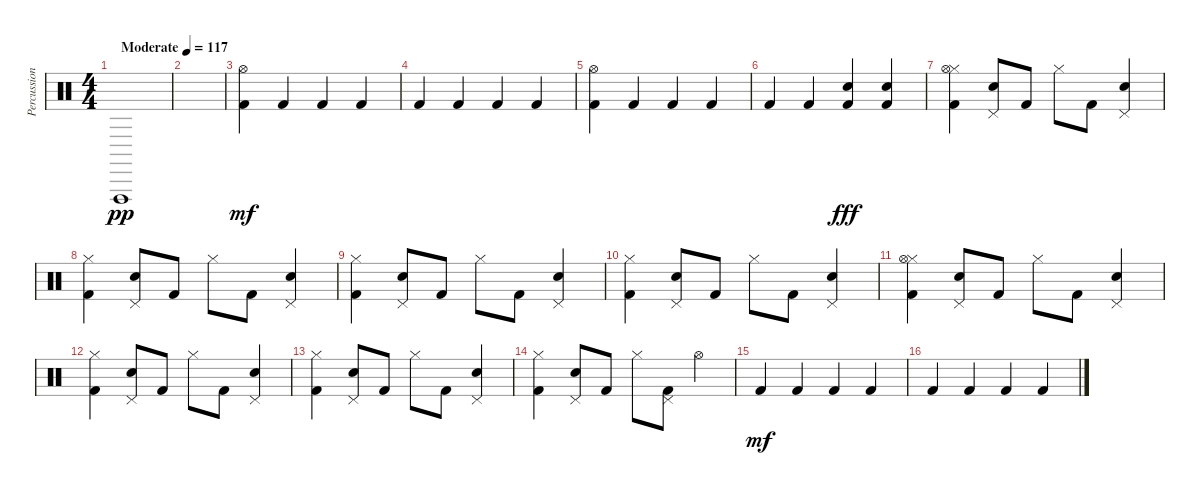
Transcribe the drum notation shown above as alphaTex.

\track ("Percussion" "Percussion") {instrument percussion}
\staff {score}
\articulation defaults
\ts (4 4)
\tempo (117 "Moderate")
\clef neutral
\ks c "Vibraslap (hit)".1{dy pp}
|
|
("Kick (hit) 2" "Hi-Hat (open)").4{dy mf} "Kick (hit) 2".4 "Kick (hit) 2".4 "Kick (hit) 2".4 |
"Kick (hit) 2".4 "Kick (hit) 2".4 "Kick (hit) 2".4 "Kick (hit) 2".4 |
("Kick (hit) 2" "Hi-Hat (open)").4 "Kick (hit) 2".4 "Kick (hit) 2".4 "Kick (hit) 2".4 |
"Kick (hit) 2".4 "Kick (hit) 2".4 ("Kick (hit) 2" "Snare (hit) 2").4{dy fff} ("Kick (hit) 2" "Snare (hit) 2").4 |
("Hi-Hat (closed)" "Kick (hit) 2" "Hi-Hat (open)").4 ("Pedal Hi-Hat (hit)" "Electric Snare (hit)").8 "Kick (hit) 2".8 "Hi-Hat (closed)".8 "Kick (hit) 2".8 ("Pedal Hi-Hat (hit)" "Electric Snare (hit)").4 |
("Hi-Hat (closed)" "Kick (hit) 2").4 ("Pedal Hi-Hat (hit)" "Electric Snare (hit)").8 "Kick (hit) 2".8 "Hi-Hat (closed)".8 "Kick (hit) 2".8 ("Pedal Hi-Hat (hit)" "Electric Snare (hit)").4 |
("Hi-Hat (closed)" "Kick (hit) 2").4 ("Pedal Hi-Hat (hit)" "Electric Snare (hit)").8 "Kick (hit) 2".8 "Hi-Hat (closed)".8 "Kick (hit) 2".8 ("Pedal Hi-Hat (hit)" "Electric Snare (hit)").4 |
("Hi-Hat (closed)" "Kick (hit) 2").4 ("Pedal Hi-Hat (hit)" "Electric Snare (hit)").8 "Kick (hit) 2".8 "Hi-Hat (closed)".8 "Kick (hit) 2".8 ("Pedal Hi-Hat (hit)" "Electric Snare (hit)").4 |
("Hi-Hat (closed)" "Kick (hit) 2" "Hi-Hat (open)").4 ("Pedal Hi-Hat (hit)" "Electric Snare (hit)").8 "Kick (hit) 2".8 "Hi-Hat (closed)".8 "Kick (hit) 2".8 ("Pedal Hi-Hat (hit)" "Electric Snare (hit)").4 |
("Hi-Hat (closed)" "Kick (hit) 2").4 ("Pedal Hi-Hat (hit)" "Electric Snare (hit)").8 "Kick (hit) 2".8 "Hi-Hat (closed)".8 "Kick (hit) 2".8 ("Pedal Hi-Hat (hit)" "Electric Snare (hit)").4 |
("Hi-Hat (closed)" "Kick (hit) 2").4 ("Pedal Hi-Hat (hit)" "Electric Snare (hit)").8 "Kick (hit) 2".8 "Hi-Hat (closed)".8 "Kick (hit) 2".8 ("Pedal Hi-Hat (hit)" "Electric Snare (hit)").4 |
("Hi-Hat (closed)" "Kick (hit) 2").4 ("Pedal Hi-Hat (hit)" "Electric Snare (hit)").8 "Kick (hit) 2".8 "Hi-Hat (closed)".8 ("Pedal Hi-Hat (hit)" "Kick (hit) 2").8 "Hi-Hat (open)".4 |
"Kick (hit) 2".4{dy mf} "Kick (hit) 2".4 "Kick (hit) 2".4 "Kick (hit) 2".4 |
"Kick (hit) 2".4 "Kick (hit) 2".4 "Kick (hit) 2".4 "Kick (hit) 2".4
